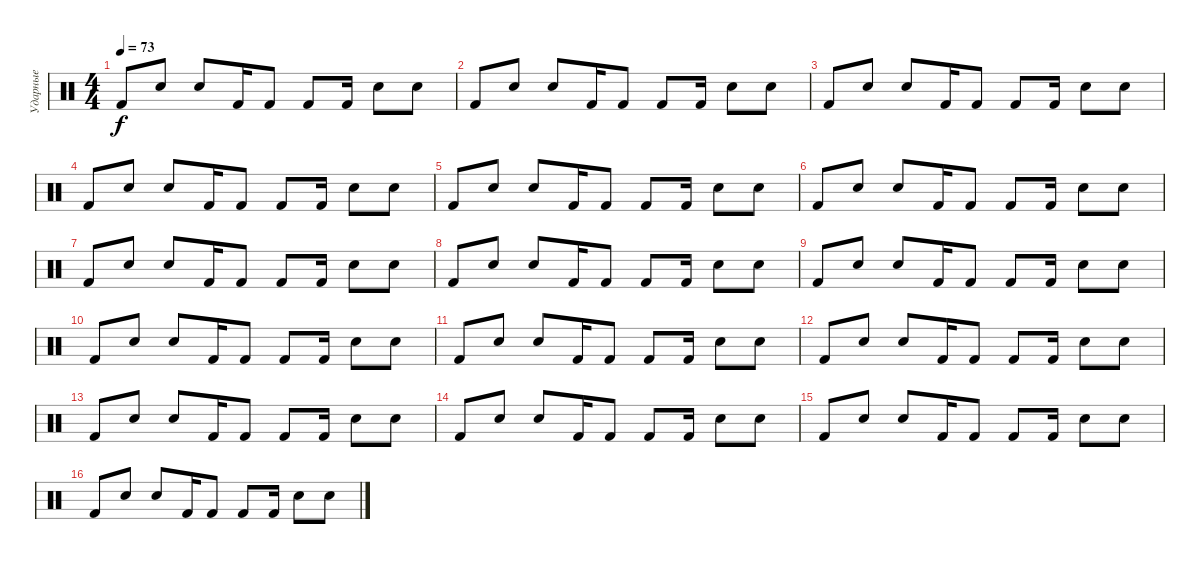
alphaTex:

\track ("Ударные" "Ударные") {instrument percussion}
\staff {score}
\articulation defaults
\ts (4 4)
\tempo 73
\clef neutral
\ks c "Kick (hit) 2".8{dy f} "Snare (hit)".8 "Snare (hit) 2".8 "Kick (hit) 2".16 "Kick (hit) 2".8 "Kick (hit) 2".8 "Kick (hit) 2".16 "Snare (hit) 2".8 "Snare (hit)".8
|
"Kick (hit) 2".8 "Snare (hit)".8 "Snare (hit) 2".8 "Kick (hit) 2".16 "Kick (hit) 2".8 "Kick (hit) 2".8 "Kick (hit) 2".16 "Snare (hit) 2".8 "Snare (hit)".8 |
"Kick (hit) 2".8 "Snare (hit)".8 "Snare (hit) 2".8 "Kick (hit) 2".16 "Kick (hit) 2".8 "Kick (hit) 2".8 "Kick (hit) 2".16 "Snare (hit) 2".8 "Snare (hit)".8 |
"Kick (hit) 2".8 "Snare (hit)".8 "Snare (hit) 2".8 "Kick (hit) 2".16 "Kick (hit) 2".8 "Kick (hit) 2".8 "Kick (hit) 2".16 "Snare (hit) 2".8 "Snare (hit)".8 |
"Kick (hit) 2".8 "Snare (hit)".8 "Snare (hit) 2".8 "Kick (hit) 2".16 "Kick (hit) 2".8 "Kick (hit) 2".8 "Kick (hit) 2".16 "Snare (hit) 2".8 "Snare (hit)".8 |
"Kick (hit) 2".8 "Snare (hit)".8 "Snare (hit) 2".8 "Kick (hit) 2".16 "Kick (hit) 2".8 "Kick (hit) 2".8 "Kick (hit) 2".16 "Snare (hit) 2".8 "Snare (hit)".8 |
"Kick (hit) 2".8 "Snare (hit)".8 "Snare (hit) 2".8 "Kick (hit) 2".16 "Kick (hit) 2".8 "Kick (hit) 2".8 "Kick (hit) 2".16 "Snare (hit) 2".8 "Snare (hit)".8 |
"Kick (hit) 2".8 "Snare (hit)".8 "Snare (hit) 2".8 "Kick (hit) 2".16 "Kick (hit) 2".8 "Kick (hit) 2".8 "Kick (hit) 2".16 "Snare (hit) 2".8 "Snare (hit)".8 |
"Kick (hit) 2".8 "Snare (hit)".8 "Snare (hit) 2".8 "Kick (hit) 2".16 "Kick (hit) 2".8 "Kick (hit) 2".8 "Kick (hit) 2".16 "Snare (hit) 2".8 "Snare (hit)".8 |
"Kick (hit) 2".8 "Snare (hit)".8 "Snare (hit) 2".8 "Kick (hit) 2".16 "Kick (hit) 2".8 "Kick (hit) 2".8 "Kick (hit) 2".16 "Snare (hit) 2".8 "Snare (hit)".8 |
"Kick (hit) 2".8 "Snare (hit)".8 "Snare (hit) 2".8 "Kick (hit) 2".16 "Kick (hit) 2".8 "Kick (hit) 2".8 "Kick (hit) 2".16 "Snare (hit) 2".8 "Snare (hit)".8 |
"Kick (hit) 2".8 "Snare (hit)".8 "Snare (hit) 2".8 "Kick (hit) 2".16 "Kick (hit) 2".8 "Kick (hit) 2".8 "Kick (hit) 2".16 "Snare (hit) 2".8 "Snare (hit)".8 |
"Kick (hit) 2".8 "Snare (hit)".8 "Snare (hit) 2".8 "Kick (hit) 2".16 "Kick (hit) 2".8 "Kick (hit) 2".8 "Kick (hit) 2".16 "Snare (hit) 2".8 "Snare (hit)".8 |
"Kick (hit) 2".8 "Snare (hit)".8 "Snare (hit) 2".8 "Kick (hit) 2".16 "Kick (hit) 2".8 "Kick (hit) 2".8 "Kick (hit) 2".16 "Snare (hit) 2".8 "Snare (hit)".8 |
"Kick (hit) 2".8 "Snare (hit)".8 "Snare (hit) 2".8 "Kick (hit) 2".16 "Kick (hit) 2".8 "Kick (hit) 2".8 "Kick (hit) 2".16 "Snare (hit) 2".8 "Snare (hit)".8 |
"Kick (hit) 2".8 "Snare (hit)".8 "Snare (hit) 2".8 "Kick (hit) 2".16 "Kick (hit) 2".8 "Kick (hit) 2".8 "Kick (hit) 2".16 "Snare (hit) 2".8 "Snare (hit)".8
